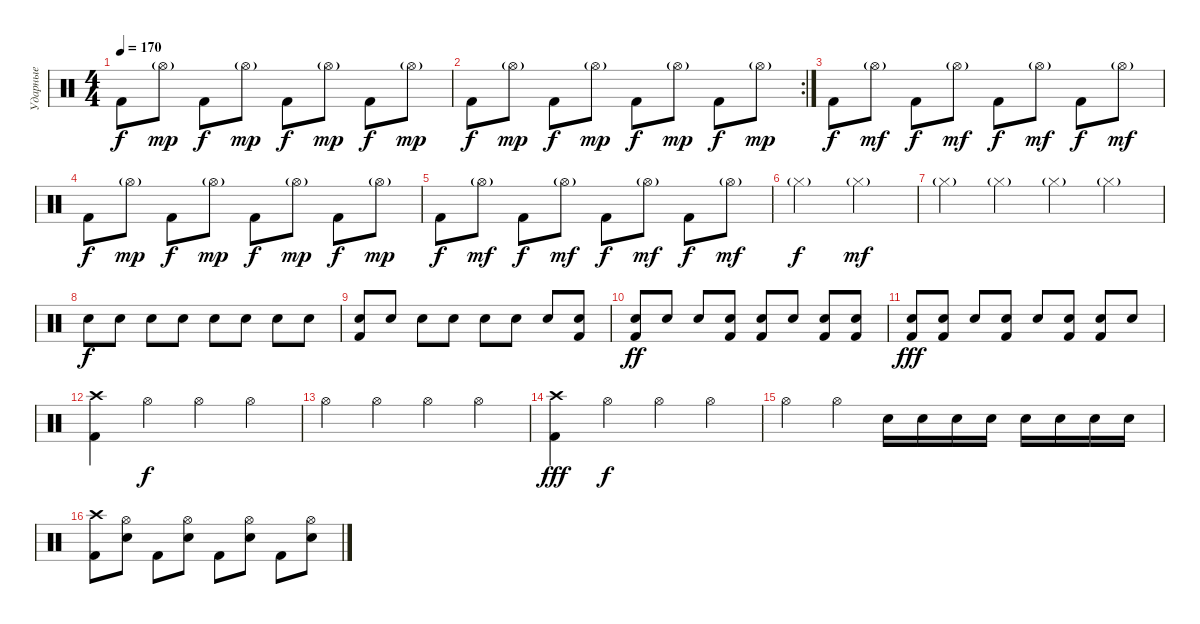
\track ("Ударные" "Ударные") {instrument percussion}
\staff {score}
\articulation defaults
\ts (4 4)
\tempo 170
\clef neutral
\ks c "Kick (hit) 2".8{dy f} "Hi-Hat (open)"{g}.8{dy mp} "Kick (hit) 2".8{dy f} "Hi-Hat (open)"{g}.8{dy mp} "Kick (hit) 2".8{dy f} "Hi-Hat (open)"{g}.8{dy mp} "Kick (hit) 2".8{dy f} "Hi-Hat (open)"{g}.8{dy mp}
|
\rc 2 "Kick (hit) 2".8{dy f} "Hi-Hat (open)"{g}.8{dy mp} "Kick (hit) 2".8{dy f} "Hi-Hat (open)"{g}.8{dy mp} "Kick (hit) 2".8{dy f} "Hi-Hat (open)"{g}.8{dy mp} "Kick (hit) 2".8{dy f} "Hi-Hat (open)"{g}.8{dy mp}
|
"Kick (hit) 2".8{dy f} "Hi-Hat (open)"{g}.8{dy mf} "Kick (hit) 2".8{dy f} "Hi-Hat (open)"{g}.8{dy mf} "Kick (hit) 2".8{dy f} "Hi-Hat (open)"{g}.8{dy mf} "Kick (hit) 2".8{dy f} "Hi-Hat (open)"{g}.8{dy mf} |
"Kick (hit) 2".8{dy f} "Hi-Hat (open)"{g}.8{dy mp} "Kick (hit) 2".8{dy f} "Hi-Hat (open)"{g}.8{dy mp} "Kick (hit) 2".8{dy f} "Hi-Hat (open)"{g}.8{dy mp} "Kick (hit) 2".8{dy f} "Hi-Hat (open)"{g}.8{dy mp} |
"Kick (hit) 2".8{dy f} "Hi-Hat (open)"{g}.8{dy mf} "Kick (hit) 2".8{dy f} "Hi-Hat (open)"{g}.8{dy mf} "Kick (hit) 2".8{dy f} "Hi-Hat (open)"{g}.8{dy mf} "Kick (hit) 2".8{dy f} "Hi-Hat (open)"{g}.8{dy mf} |
"Hi-Hat (closed)"{g}.2{dy f} "Hi-Hat (closed)"{g}.2{dy mf} |
"Hi-Hat (closed)"{g}.4 "Hi-Hat (closed)"{g}.4 "Hi-Hat (closed)"{g}.4 "Hi-Hat (closed)"{g}.4 |
"Electric Snare (hit)".8{dy f} "Electric Snare (hit)".8 "Electric Snare (hit)".8 "Electric Snare (hit)".8 "Electric Snare (hit)".8 "Electric Snare (hit)".8 "Electric Snare (hit)".8 "Electric Snare (hit)".8 |
("Kick (hit) 2" "Electric Snare (hit)").8 "Electric Snare (hit)".8 "Electric Snare (hit)".8 "Electric Snare (hit)".8 "Electric Snare (hit)".8 "Electric Snare (hit)".8 "Electric Snare (hit)".8 ("Kick (hit) 2" "Electric Snare (hit)").8 |
("Kick (hit) 2" "Electric Snare (hit)").8{dy ff} "Electric Snare (hit)".8 "Electric Snare (hit)".8 ("Kick (hit) 2" "Electric Snare (hit)").8 ("Kick (hit) 2" "Electric Snare (hit)").8 "Electric Snare (hit)".8 ("Kick (hit) 2" "Electric Snare (hit)").8 ("Kick (hit) 2" "Electric Snare (hit)").8 |
("Kick (hit) 2" "Electric Snare (hit)").8{dy fff} ("Kick (hit) 2" "Electric Snare (hit)").8 "Electric Snare (hit)".8 ("Kick (hit) 2" "Electric Snare (hit)").8 "Electric Snare (hit)".8 ("Kick (hit) 2" "Electric Snare (hit)").8 ("Kick (hit) 2" "Electric Snare (hit)").8 "Electric Snare (hit)".8 |
("Kick (hit) 2" "Crash high (hit)").4 "Hi-Hat (open)".4{dy f} "Hi-Hat (open)".4 "Hi-Hat (open)".4 |
"Hi-Hat (open)".4 "Hi-Hat (open)".4 "Hi-Hat (open)".4 "Hi-Hat (open)".4 |
("Kick (hit) 2" "Crash high (hit)").4{dy fff} "Hi-Hat (open)".4{dy f} "Hi-Hat (open)".4 "Hi-Hat (open)".4 |
"Hi-Hat (open)".4 "Hi-Hat (open)".4 "Electric Snare (hit)".16 "Electric Snare (hit)".16 "Electric Snare (hit)".16 "Electric Snare (hit)".16 "Electric Snare (hit)".16 "Electric Snare (hit)".16 "Electric Snare (hit)".16 "Electric Snare (hit)".16 |
("Kick (hit) 2" "Crash high (hit)").8 ("Hi-Hat (open)" "Electric Snare (hit)").8 "Kick (hit) 2".8 ("Hi-Hat (open)" "Electric Snare (hit)").8 "Kick (hit) 2".8 ("Hi-Hat (open)" "Electric Snare (hit)").8 "Kick (hit) 2".8 ("Hi-Hat (open)" "Electric Snare (hit)").8
